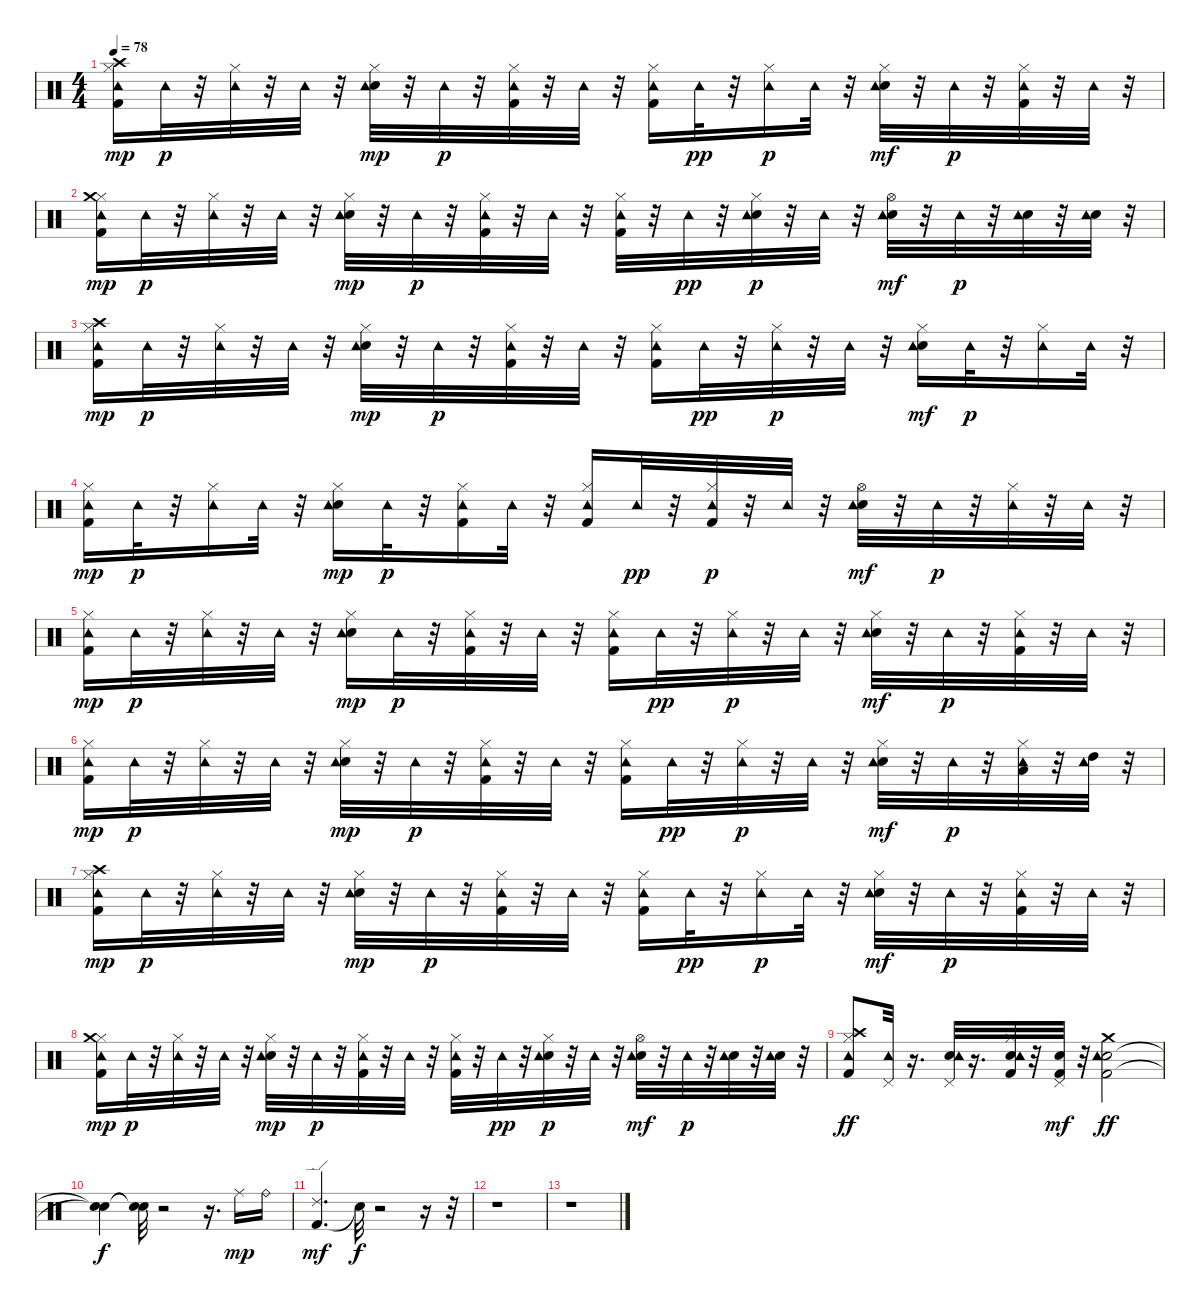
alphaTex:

\track "" {instrument percussion}
\staff {score}
\articulation defaults
\ts (4 4)
\tempo 78
\clef neutral
\ks c
("Kick (hit) 2" "Hi-Hat (closed)" "Crash high (hit)" "Tambourine (hit)").16{dy mp} "Tambourine (hit)".32{dy p} r.32 ("Hi-Hat (closed)" "Tambourine (hit)").32 r.32 "Tambourine (hit)".32 r.32 ("Electric Snare (hit)" "Hi-Hat (closed)" "Tambourine (hit)").32{dy mp} r.32 "Tambourine (hit)".32{dy p} r.32 ("Kick (hit) 2" "Hi-Hat (closed)" "Tambourine (hit)").32 r.32 "Tambourine (hit)".32 r.32 ("Kick (hit) 2" "Hi-Hat (closed)" "Tambourine (hit)").16 "Tambourine (hit)".32{dy pp} r.32 ("Hi-Hat (closed)" "Tambourine (hit)").16{dy p} "Tambourine (hit)".32 r.32 ("Electric Snare (hit)" "Hi-Hat (closed)" "Tambourine (hit)").32{dy mf} r.32 "Tambourine (hit)".32{dy p} r.32 ("Kick (hit) 2" "Hi-Hat (closed)" "Tambourine (hit)").32 r.32 "Tambourine (hit)".32 r.32 |
("Kick (hit) 2" "Hi-Hat (closed)" "Tambourine (hit)" "Crash medium (hit)").16{dy mp} "Tambourine (hit)".32{dy p} r.32 ("Hi-Hat (closed)" "Tambourine (hit)").32 r.32 "Tambourine (hit)".32 r.32 ("Electric Snare (hit)" "Hi-Hat (closed)" "Tambourine (hit)").32{dy mp} r.32 "Tambourine (hit)".32{dy p} r.32 ("Kick (hit) 2" "Hi-Hat (closed)" "Tambourine (hit)").32 r.32 "Tambourine (hit)".32 r.32 ("Kick (hit) 2" "Hi-Hat (closed)" "Tambourine (hit)").32 r.32 "Tambourine (hit)".32{dy pp} r.32 ("Electric Snare (hit)" "Hi-Hat (closed)" "Tambourine (hit)").32{dy p} r.32 "Tambourine (hit)".32 r.32 ("Electric Snare (hit)" "Hi-Hat (open)" "Tambourine (hit)").32{dy mf} r.32 "Tambourine (hit)".32{dy p} r.32 ("Electric Snare (hit)" "Tambourine (hit)").32 r.32 ("Electric Snare (hit)" "Tambourine (hit)").32 r.32 |
("Kick (hit) 2" "Hi-Hat (closed)" "Crash high (hit)" "Tambourine (hit)").16{dy mp} "Tambourine (hit)".32{dy p} r.32 ("Hi-Hat (closed)" "Tambourine (hit)").32 r.32 "Tambourine (hit)".32 r.32 ("Electric Snare (hit)" "Hi-Hat (closed)" "Tambourine (hit)").32{dy mp} r.32 "Tambourine (hit)".32{dy p} r.32 ("Kick (hit) 2" "Hi-Hat (closed)" "Tambourine (hit)").32 r.32 "Tambourine (hit)".32 r.32 ("Kick (hit) 2" "Hi-Hat (closed)" "Tambourine (hit)").16 "Tambourine (hit)".32{dy pp} r.32 ("Hi-Hat (closed)" "Tambourine (hit)").32{dy p} r.32 "Tambourine (hit)".32 r.32 ("Electric Snare (hit)" "Hi-Hat (closed)" "Tambourine (hit)").16{dy mf} "Tambourine (hit)".32{dy p} r.32 ("Hi-Hat (closed)" "Tambourine (hit)").16 "Tambourine (hit)".32 r.32 |
("Kick (hit) 2" "Hi-Hat (closed)" "Tambourine (hit)").16{dy mp} "Tambourine (hit)".32{dy p} r.32 ("Hi-Hat (closed)" "Tambourine (hit)").16 "Tambourine (hit)".32 r.32 ("Electric Snare (hit)" "Hi-Hat (closed)" "Tambourine (hit)").16{dy mp} "Tambourine (hit)".32{dy p} r.32 ("Kick (hit) 2" "Hi-Hat (closed)" "Tambourine (hit)").16 "Tambourine (hit)".32 r.32 ("Kick (hit) 2" "Hi-Hat (closed)" "Tambourine (hit)").16 "Tambourine (hit)".32{dy pp} r.32 ("Kick (hit) 2" "Hi-Hat (closed)" "Tambourine (hit)").32{dy p} r.32 "Tambourine (hit)".32 r.32 ("Electric Snare (hit)" "Hi-Hat (open)" "Tambourine (hit)").32{dy mf} r.32 "Tambourine (hit)".32{dy p} r.32 ("Hi-Hat (closed)" "Tambourine (hit)").32 r.32 "Tambourine (hit)".32 r.32 |
("Kick (hit) 2" "Hi-Hat (closed)" "Tambourine (hit)").16{dy mp} "Tambourine (hit)".32{dy p} r.32 ("Hi-Hat (closed)" "Tambourine (hit)").32 r.32 "Tambourine (hit)".32 r.32 ("Electric Snare (hit)" "Hi-Hat (closed)" "Tambourine (hit)").16{dy mp} "Tambourine (hit)".32{dy p} r.32 ("Kick (hit) 2" "Hi-Hat (closed)" "Tambourine (hit)").32 r.32 "Tambourine (hit)".32 r.32 ("Kick (hit) 2" "Hi-Hat (closed)" "Tambourine (hit)").16 "Tambourine (hit)".32{dy pp} r.32 ("Hi-Hat (closed)" "Tambourine (hit)").32{dy p} r.32 "Tambourine (hit)".32 r.32 ("Electric Snare (hit)" "Hi-Hat (closed)" "Tambourine (hit)").32{dy mf} r.32 "Tambourine (hit)".32{dy p} r.32 ("Kick (hit) 2" "Hi-Hat (closed)" "Tambourine (hit)").32 r.32 "Tambourine (hit)".32 r.32 |
("Kick (hit) 2" "Hi-Hat (closed)" "Tambourine (hit)").16{dy mp} "Tambourine (hit)".32{dy p} r.32 ("Hi-Hat (closed)" "Tambourine (hit)").32 r.32 "Tambourine (hit)".32 r.32 ("Electric Snare (hit)" "Hi-Hat (closed)" "Tambourine (hit)").32{dy mp} r.32 "Tambourine (hit)".32{dy p} r.32 ("Kick (hit) 2" "Hi-Hat (closed)" "Tambourine (hit)").32 r.32 "Tambourine (hit)".32 r.32 ("Kick (hit) 2" "Hi-Hat (closed)" "Tambourine (hit)").16 "Tambourine (hit)".32{dy pp} r.32 ("Hi-Hat (closed)" "Tambourine (hit)").32{dy p} r.32 "Tambourine (hit)".32 r.32 ("Electric Snare (hit)" "Hi-Hat (closed)" "Tambourine (hit)").32{dy mf} r.32 "Tambourine (hit)".32{dy p} r.32 ("Hi-Hat (closed)" "Low Tom (hit)" "Tambourine (hit)").32 r.32 ("High Tom (hit)" "Tambourine (hit)").32 r.32 |
("Kick (hit) 2" "Hi-Hat (closed)" "Crash high (hit)" "Tambourine (hit)").16{dy mp} "Tambourine (hit)".32{dy p} r.32 ("Hi-Hat (closed)" "Tambourine (hit)").32 r.32 "Tambourine (hit)".32 r.32 ("Electric Snare (hit)" "Hi-Hat (closed)" "Tambourine (hit)").32{dy mp} r.32 "Tambourine (hit)".32{dy p} r.32 ("Kick (hit) 2" "Hi-Hat (closed)" "Tambourine (hit)").32 r.32 "Tambourine (hit)".32 r.32 ("Kick (hit) 2" "Hi-Hat (closed)" "Tambourine (hit)").16 "Tambourine (hit)".32{dy pp} r.32 ("Hi-Hat (closed)" "Tambourine (hit)").16{dy p} "Tambourine (hit)".32 r.32 ("Electric Snare (hit)" "Hi-Hat (closed)" "Tambourine (hit)").32{dy mf} r.32 "Tambourine (hit)".32{dy p} r.32 ("Kick (hit) 2" "Hi-Hat (closed)" "Tambourine (hit)").32 r.32 "Tambourine (hit)".32 r.32 |
("Kick (hit) 2" "Hi-Hat (closed)" "Tambourine (hit)" "Crash medium (hit)").16{dy mp} "Tambourine (hit)".32{dy p} r.32 ("Hi-Hat (closed)" "Tambourine (hit)").32 r.32 "Tambourine (hit)".32 r.32 ("Electric Snare (hit)" "Hi-Hat (closed)" "Tambourine (hit)").32{dy mp} r.32 "Tambourine (hit)".32{dy p} r.32 ("Kick (hit) 2" "Hi-Hat (closed)" "Tambourine (hit)").32 r.32 "Tambourine (hit)".32 r.32 ("Kick (hit) 2" "Hi-Hat (closed)" "Tambourine (hit)").32 r.32 "Tambourine (hit)".32{dy pp} r.32 ("Electric Snare (hit)" "Hi-Hat (closed)" "Tambourine (hit)").32{dy p} r.32 "Tambourine (hit)".32 r.32 ("Electric Snare (hit)" "Hi-Hat (open)" "Tambourine (hit)").32{dy mf} r.32 "Tambourine (hit)".32{dy p} r.32 ("Electric Snare (hit)" "Tambourine (hit)").32 r.32 ("Electric Snare (hit)" "Tambourine (hit)").32 r.32 |
("Kick (hit) 2" "Hi-Hat (closed)" "Crash high (hit)" "Tambourine (hit)").8{dy ff} ("Pedal Hi-Hat (hit)" "Tambourine (hit)").32 r.16{d} ("Electric Snare (hit)" "Pedal Hi-Hat (hit)" "Tambourine (hit)").32 r.16{d} ("Kick (hit) 2" "Electric Snare (hit)" "Hi-Hat (closed)" "Tambourine (hit)").32 r.32 ("Kick (hit) 2" "Electric Snare (hit)" "Pedal Hi-Hat (hit)").32{dy mf} r.32 ("Kick (hit) 2" "Electric Snare (hit)" "Tambourine (hit)" "Crash medium (hit)").2{dy ff} |
("Snare (hit)"{t} "Snare (hit)"{t}).4{dy f} ("Snare (hit)"{t} "Snare (hit)"{t}).32 r.2 r.16{d} "Ride (middle)".16{dy mp} "Ride (bell)".16 |
("Kick (hit) 2" "Ride (edge) 2").4{d dy mf} "Snare (hit)"{t}.32{dy f} r.2 r.16 r.32 |
r.1 |
r.1
